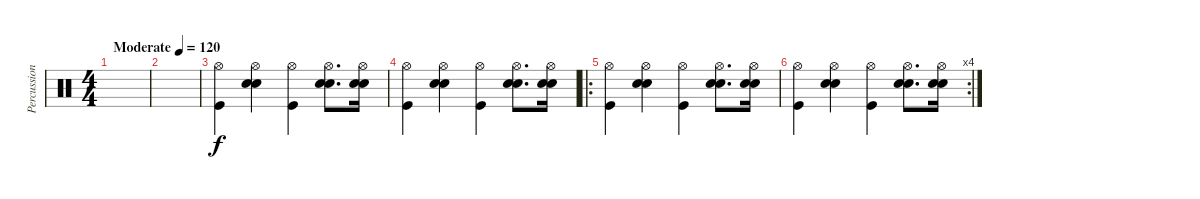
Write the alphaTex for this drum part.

\track ("Percussion" "Percussion") {instrument percussion}
\staff {score}
\articulation defaults
\ts (4 4)
\tempo (120 "Moderate")
\clef neutral
\ks c
|
|
("Hi-Hat (open)" "Kick (hit)").4 ("Hand Clap (hit)" "Hi-Hat (open)" "Electric Snare (hit)").4 ("Hi-Hat (open)" "Kick (hit)").4 ("Hand Clap (hit)" "Hi-Hat (open)" "Electric Snare (hit)").8{d} ("Hand Clap (hit)" "Hi-Hat (open)" "Electric Snare (hit)").16 |
("Hi-Hat (open)" "Kick (hit)").4 ("Hand Clap (hit)" "Hi-Hat (open)" "Electric Snare (hit)").4 ("Hi-Hat (open)" "Kick (hit)").4 ("Hand Clap (hit)" "Hi-Hat (open)" "Electric Snare (hit)").8{d} ("Hand Clap (hit)" "Hi-Hat (open)" "Electric Snare (hit)").16 |
\ro
("Hi-Hat (open)" "Kick (hit)").4 ("Hand Clap (hit)" "Hi-Hat (open)" "Electric Snare (hit)").4 ("Hi-Hat (open)" "Kick (hit)").4 ("Hand Clap (hit)" "Hi-Hat (open)" "Electric Snare (hit)").8{d} ("Hand Clap (hit)" "Hi-Hat (open)" "Electric Snare (hit)").16 |
\rc 4
("Hi-Hat (open)" "Kick (hit)").4 ("Hand Clap (hit)" "Hi-Hat (open)" "Electric Snare (hit)").4 ("Hi-Hat (open)" "Kick (hit)").4 ("Hand Clap (hit)" "Hi-Hat (open)" "Electric Snare (hit)").8{d} ("Hand Clap (hit)" "Hi-Hat (open)" "Electric Snare (hit)").16
